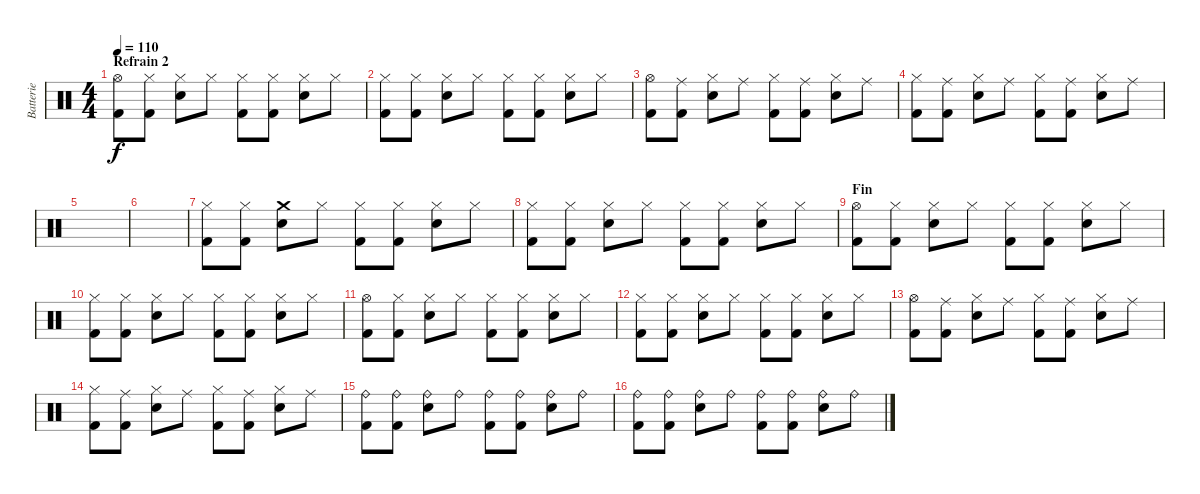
\track ("Batterie" "Batterie") {instrument percussion}
\staff {score}
\articulation defaults
\ts (4 4)
\section ("" "Refrain 2")
\tempo 110
\clef neutral
\ks c
("Hi-Hat (open)" "Kick (hit) 2").8{dy f} ("Hi-Hat (closed)" "Kick (hit) 2").8 ("Hi-Hat (closed)" "Electric Snare (hit)").8 "Hi-Hat (closed)".8 ("Hi-Hat (closed)" "Kick (hit) 2").8 ("Hi-Hat (closed)" "Kick (hit) 2").8 ("Hi-Hat (closed)" "Electric Snare (hit)").8 "Hi-Hat (closed)".8 |
("Hi-Hat (closed)" "Kick (hit) 2").8 ("Hi-Hat (closed)" "Kick (hit) 2").8 ("Hi-Hat (closed)" "Electric Snare (hit)").8 "Hi-Hat (closed)".8 ("Hi-Hat (closed)" "Kick (hit) 2").8 ("Hi-Hat (closed)" "Kick (hit) 2").8 ("Hi-Hat (closed)" "Electric Snare (hit)").8 "Hi-Hat (closed)".8 |
("Hi-Hat (open)" "Kick (hit) 2").8 ("Ride (middle)" "Kick (hit) 2").8 ("Hi-Hat (closed)" "Electric Snare (hit)").8 "Ride (middle)".8 ("Hi-Hat (closed)" "Kick (hit) 2").8 ("Ride (middle)" "Kick (hit) 2").8 ("Hi-Hat (closed)" "Electric Snare (hit)").8 "Ride (middle)".8 |
("Hi-Hat (closed)" "Kick (hit) 2").8 ("Ride (middle)" "Kick (hit) 2").8 ("Hi-Hat (closed)" "Electric Snare (hit)").8 "Ride (middle)".8 ("Hi-Hat (closed)" "Kick (hit) 2").8 ("Ride (middle)" "Kick (hit) 2").8 ("Hi-Hat (closed)" "Electric Snare (hit)").8 "Ride (middle)".8 |
|
|
("Hi-Hat (closed)" "Kick (hit) 2").8 ("Hi-Hat (closed)" "Kick (hit) 2").8 ("Crash medium (hit)" "Electric Snare (hit)").8 "Hi-Hat (closed)".8 ("Hi-Hat (closed)" "Kick (hit) 2").8 ("Hi-Hat (closed)" "Kick (hit) 2").8 ("Hi-Hat (closed)" "Electric Snare (hit)").8 "Hi-Hat (closed)".8 |
("Hi-Hat (closed)" "Kick (hit) 2").8 ("Hi-Hat (closed)" "Kick (hit) 2").8 ("Hi-Hat (closed)" "Electric Snare (hit)").8 "Hi-Hat (closed)".8 ("Hi-Hat (closed)" "Kick (hit) 2").8 ("Hi-Hat (closed)" "Kick (hit) 2").8 ("Hi-Hat (closed)" "Electric Snare (hit)").8 "Hi-Hat (closed)".8 |
\section ("" "Fin")
("Hi-Hat (open)" "Kick (hit) 2").8 ("Hi-Hat (closed)" "Kick (hit) 2").8 ("Hi-Hat (closed)" "Electric Snare (hit)").8 "Hi-Hat (closed)".8 ("Hi-Hat (closed)" "Kick (hit) 2").8 ("Hi-Hat (closed)" "Kick (hit) 2").8 ("Hi-Hat (closed)" "Electric Snare (hit)").8 "Hi-Hat (closed)".8 |
("Hi-Hat (closed)" "Kick (hit) 2").8 ("Hi-Hat (closed)" "Kick (hit) 2").8 ("Hi-Hat (closed)" "Electric Snare (hit)").8 "Hi-Hat (closed)".8 ("Hi-Hat (closed)" "Kick (hit) 2").8 ("Hi-Hat (closed)" "Kick (hit) 2").8 ("Hi-Hat (closed)" "Electric Snare (hit)").8 "Hi-Hat (closed)".8 |
("Hi-Hat (open)" "Kick (hit) 2").8 ("Hi-Hat (closed)" "Kick (hit) 2").8 ("Hi-Hat (closed)" "Electric Snare (hit)").8 "Hi-Hat (closed)".8 ("Hi-Hat (closed)" "Kick (hit) 2").8 ("Hi-Hat (closed)" "Kick (hit) 2").8 ("Hi-Hat (closed)" "Electric Snare (hit)").8 "Hi-Hat (closed)".8 |
("Hi-Hat (closed)" "Kick (hit) 2").8 ("Hi-Hat (closed)" "Kick (hit) 2").8 ("Hi-Hat (closed)" "Electric Snare (hit)").8 "Hi-Hat (closed)".8 ("Hi-Hat (closed)" "Kick (hit) 2").8 ("Hi-Hat (closed)" "Kick (hit) 2").8 ("Hi-Hat (closed)" "Electric Snare (hit)").8 "Hi-Hat (closed)".8 |
("Hi-Hat (open)" "Kick (hit) 2").8 ("Ride (middle)" "Kick (hit) 2").8 ("Hi-Hat (closed)" "Electric Snare (hit)").8 "Ride (middle)".8 ("Hi-Hat (closed)" "Kick (hit) 2").8 ("Ride (middle)" "Kick (hit) 2").8 ("Hi-Hat (closed)" "Electric Snare (hit)").8 "Ride (middle)".8 |
("Hi-Hat (closed)" "Kick (hit) 2").8 ("Ride (middle)" "Kick (hit) 2").8 ("Hi-Hat (closed)" "Electric Snare (hit)").8 "Ride (middle)".8 ("Hi-Hat (closed)" "Kick (hit) 2").8 ("Ride (middle)" "Kick (hit) 2").8 ("Hi-Hat (closed)" "Electric Snare (hit)").8 "Ride (middle)".8 |
("Ride (bell)" "Kick (hit) 2").8 ("Ride (bell)" "Kick (hit) 2").8 ("Ride (bell)" "Electric Snare (hit)").8 "Ride (bell)".8 ("Ride (bell)" "Kick (hit) 2").8 ("Ride (bell)" "Kick (hit) 2").8 ("Ride (bell)" "Electric Snare (hit)").8 "Ride (bell)".8 |
("Ride (bell)" "Kick (hit) 2").8 ("Ride (bell)" "Kick (hit) 2").8 ("Ride (bell)" "Electric Snare (hit)").8 "Ride (bell)".8 ("Ride (bell)" "Kick (hit) 2").8 ("Ride (bell)" "Kick (hit) 2").8 ("Ride (bell)" "Electric Snare (hit)").8 "Ride (bell)".8
